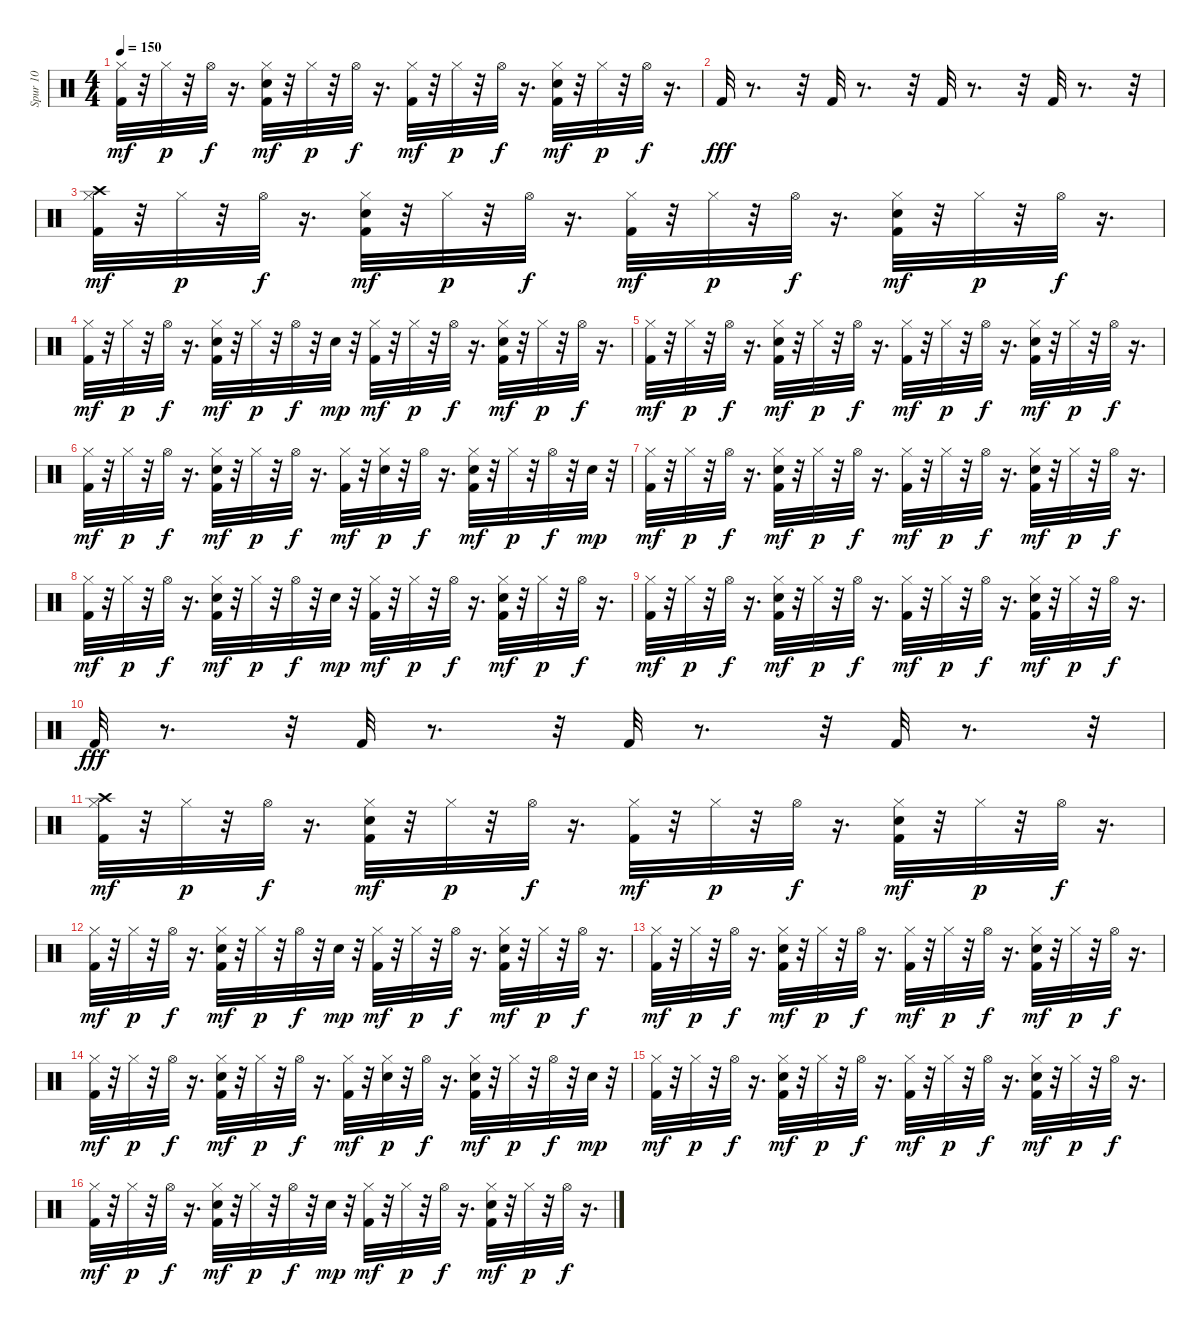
\track ("Spur 10" "Spur 10") {instrument percussion}
\staff {score}
\articulation defaults
\ts (4 4)
\tempo 150
\clef neutral
\ks c
("Kick (hit) 2" "Hi-Hat (closed)").32{dy mf} r.32 "Hi-Hat (closed)".32{dy p} r.32 "Hi-Hat (open)".32{dy f} r.16{d} ("Kick (hit) 2" "Snare (hit) 2" "Hi-Hat (closed)").32{dy mf} r.32 "Hi-Hat (closed)".32{dy p} r.32 "Hi-Hat (open)".32{dy f} r.16{d} ("Kick (hit) 2" "Hi-Hat (closed)").32{dy mf} r.32 "Hi-Hat (closed)".32{dy p} r.32 "Hi-Hat (open)".32{dy f} r.16{d} ("Kick (hit) 2" "Snare (hit) 2" "Hi-Hat (closed)").32{dy mf} r.32 "Hi-Hat (closed)".32{dy p} r.32 "Hi-Hat (open)".32{dy f} r.16{d} |
"Kick (hit) 2".32{dy fff} r.8{d} r.32 "Kick (hit) 2".32 r.8{d} r.32 "Kick (hit) 2".32 r.8{d} r.32 "Kick (hit) 2".32 r.8{d} r.32 |
("Crash high (hit)" "Kick (hit) 2" "Hi-Hat (closed)").32{dy mf} r.32 "Hi-Hat (closed)".32{dy p} r.32 "Hi-Hat (open)".32{dy f} r.16{d} ("Kick (hit) 2" "Snare (hit) 2" "Hi-Hat (closed)").32{dy mf} r.32 "Hi-Hat (closed)".32{dy p} r.32 "Hi-Hat (open)".32{dy f} r.16{d} ("Kick (hit) 2" "Hi-Hat (closed)").32{dy mf} r.32 "Hi-Hat (closed)".32{dy p} r.32 "Hi-Hat (open)".32{dy f} r.16{d} ("Kick (hit) 2" "Snare (hit) 2" "Hi-Hat (closed)").32{dy mf} r.32 "Hi-Hat (closed)".32{dy p} r.32 "Hi-Hat (open)".32{dy f} r.16{d} |
("Kick (hit) 2" "Hi-Hat (closed)").32{dy mf} r.32 "Hi-Hat (closed)".32{dy p} r.32 "Hi-Hat (open)".32{dy f} r.16{d} ("Kick (hit) 2" "Snare (hit) 2" "Hi-Hat (closed)").32{dy mf} r.32 "Hi-Hat (closed)".32{dy p} r.32 "Hi-Hat (open)".32{dy f} r.32 "Snare (hit) 2".32{dy mp} r.32 ("Kick (hit) 2" "Hi-Hat (closed)").32{dy mf} r.32 "Hi-Hat (closed)".32{dy p} r.32 "Hi-Hat (open)".32{dy f} r.16{d} ("Kick (hit) 2" "Snare (hit) 2" "Hi-Hat (closed)").32{dy mf} r.32 "Hi-Hat (closed)".32{dy p} r.32 "Hi-Hat (open)".32{dy f} r.16{d} |
("Kick (hit) 2" "Hi-Hat (closed)").32{dy mf} r.32 "Hi-Hat (closed)".32{dy p} r.32 "Hi-Hat (open)".32{dy f} r.16{d} ("Kick (hit) 2" "Snare (hit) 2" "Hi-Hat (closed)").32{dy mf} r.32 "Hi-Hat (closed)".32{dy p} r.32 "Hi-Hat (open)".32{dy f} r.16{d} ("Kick (hit) 2" "Hi-Hat (closed)").32{dy mf} r.32 "Hi-Hat (closed)".32{dy p} r.32 "Hi-Hat (open)".32{dy f} r.16{d} ("Kick (hit) 2" "Snare (hit) 2" "Hi-Hat (closed)").32{dy mf} r.32 "Hi-Hat (closed)".32{dy p} r.32 "Hi-Hat (open)".32{dy f} r.16{d} |
("Kick (hit) 2" "Hi-Hat (closed)").32{dy mf} r.32 "Hi-Hat (closed)".32{dy p} r.32 "Hi-Hat (open)".32{dy f} r.16{d} ("Kick (hit) 2" "Snare (hit) 2" "Hi-Hat (closed)").32{dy mf} r.32 "Hi-Hat (closed)".32{dy p} r.32 "Hi-Hat (open)".32{dy f} r.16{d} ("Kick (hit) 2" "Hi-Hat (closed)").32{dy mf} r.32 ("Snare (hit) 2" "Hi-Hat (closed)").32{dy p} r.32 "Hi-Hat (open)".32{dy f} r.16{d} ("Kick (hit) 2" "Snare (hit) 2" "Hi-Hat (closed)").32{dy mf} r.32 "Hi-Hat (closed)".32{dy p} r.32 "Hi-Hat (open)".32{dy f} r.32 "Snare (hit) 2".32{dy mp} r.32 |
("Kick (hit) 2" "Hi-Hat (closed)").32{dy mf} r.32 "Hi-Hat (closed)".32{dy p} r.32 "Hi-Hat (open)".32{dy f} r.16{d} ("Kick (hit) 2" "Snare (hit) 2" "Hi-Hat (closed)").32{dy mf} r.32 "Hi-Hat (closed)".32{dy p} r.32 "Hi-Hat (open)".32{dy f} r.16{d} ("Kick (hit) 2" "Hi-Hat (closed)").32{dy mf} r.32 "Hi-Hat (closed)".32{dy p} r.32 "Hi-Hat (open)".32{dy f} r.16{d} ("Kick (hit) 2" "Snare (hit) 2" "Hi-Hat (closed)").32{dy mf} r.32 "Hi-Hat (closed)".32{dy p} r.32 "Hi-Hat (open)".32{dy f} r.16{d} |
("Kick (hit) 2" "Hi-Hat (closed)").32{dy mf} r.32 "Hi-Hat (closed)".32{dy p} r.32 "Hi-Hat (open)".32{dy f} r.16{d} ("Kick (hit) 2" "Snare (hit) 2" "Hi-Hat (closed)").32{dy mf} r.32 "Hi-Hat (closed)".32{dy p} r.32 "Hi-Hat (open)".32{dy f} r.32 "Snare (hit) 2".32{dy mp} r.32 ("Kick (hit) 2" "Hi-Hat (closed)").32{dy mf} r.32 "Hi-Hat (closed)".32{dy p} r.32 "Hi-Hat (open)".32{dy f} r.16{d} ("Kick (hit) 2" "Snare (hit) 2" "Hi-Hat (closed)").32{dy mf} r.32 "Hi-Hat (closed)".32{dy p} r.32 "Hi-Hat (open)".32{dy f} r.16{d} |
("Kick (hit) 2" "Hi-Hat (closed)").32{dy mf} r.32 "Hi-Hat (closed)".32{dy p} r.32 "Hi-Hat (open)".32{dy f} r.16{d} ("Kick (hit) 2" "Snare (hit) 2" "Hi-Hat (closed)").32{dy mf} r.32 "Hi-Hat (closed)".32{dy p} r.32 "Hi-Hat (open)".32{dy f} r.16{d} ("Kick (hit) 2" "Hi-Hat (closed)").32{dy mf} r.32 "Hi-Hat (closed)".32{dy p} r.32 "Hi-Hat (open)".32{dy f} r.16{d} ("Kick (hit) 2" "Snare (hit) 2" "Hi-Hat (closed)").32{dy mf} r.32 "Hi-Hat (closed)".32{dy p} r.32 "Hi-Hat (open)".32{dy f} r.16{d} |
"Kick (hit) 2".32{dy fff} r.8{d} r.32 "Kick (hit) 2".32 r.8{d} r.32 "Kick (hit) 2".32 r.8{d} r.32 "Kick (hit) 2".32 r.8{d} r.32 |
("Crash high (hit)" "Kick (hit) 2" "Hi-Hat (closed)").32{dy mf} r.32 "Hi-Hat (closed)".32{dy p} r.32 "Hi-Hat (open)".32{dy f} r.16{d} ("Kick (hit) 2" "Snare (hit) 2" "Hi-Hat (closed)").32{dy mf} r.32 "Hi-Hat (closed)".32{dy p} r.32 "Hi-Hat (open)".32{dy f} r.16{d} ("Kick (hit) 2" "Hi-Hat (closed)").32{dy mf} r.32 "Hi-Hat (closed)".32{dy p} r.32 "Hi-Hat (open)".32{dy f} r.16{d} ("Kick (hit) 2" "Snare (hit) 2" "Hi-Hat (closed)").32{dy mf} r.32 "Hi-Hat (closed)".32{dy p} r.32 "Hi-Hat (open)".32{dy f} r.16{d} |
("Kick (hit) 2" "Hi-Hat (closed)").32{dy mf} r.32 "Hi-Hat (closed)".32{dy p} r.32 "Hi-Hat (open)".32{dy f} r.16{d} ("Kick (hit) 2" "Snare (hit) 2" "Hi-Hat (closed)").32{dy mf} r.32 "Hi-Hat (closed)".32{dy p} r.32 "Hi-Hat (open)".32{dy f} r.32 "Snare (hit) 2".32{dy mp} r.32 ("Kick (hit) 2" "Hi-Hat (closed)").32{dy mf} r.32 "Hi-Hat (closed)".32{dy p} r.32 "Hi-Hat (open)".32{dy f} r.16{d} ("Kick (hit) 2" "Snare (hit) 2" "Hi-Hat (closed)").32{dy mf} r.32 "Hi-Hat (closed)".32{dy p} r.32 "Hi-Hat (open)".32{dy f} r.16{d} |
("Kick (hit) 2" "Hi-Hat (closed)").32{dy mf} r.32 "Hi-Hat (closed)".32{dy p} r.32 "Hi-Hat (open)".32{dy f} r.16{d} ("Kick (hit) 2" "Snare (hit) 2" "Hi-Hat (closed)").32{dy mf} r.32 "Hi-Hat (closed)".32{dy p} r.32 "Hi-Hat (open)".32{dy f} r.16{d} ("Kick (hit) 2" "Hi-Hat (closed)").32{dy mf} r.32 "Hi-Hat (closed)".32{dy p} r.32 "Hi-Hat (open)".32{dy f} r.16{d} ("Kick (hit) 2" "Snare (hit) 2" "Hi-Hat (closed)").32{dy mf} r.32 "Hi-Hat (closed)".32{dy p} r.32 "Hi-Hat (open)".32{dy f} r.16{d} |
("Kick (hit) 2" "Hi-Hat (closed)").32{dy mf} r.32 "Hi-Hat (closed)".32{dy p} r.32 "Hi-Hat (open)".32{dy f} r.16{d} ("Kick (hit) 2" "Snare (hit) 2" "Hi-Hat (closed)").32{dy mf} r.32 "Hi-Hat (closed)".32{dy p} r.32 "Hi-Hat (open)".32{dy f} r.16{d} ("Kick (hit) 2" "Hi-Hat (closed)").32{dy mf} r.32 ("Snare (hit) 2" "Hi-Hat (closed)").32{dy p} r.32 "Hi-Hat (open)".32{dy f} r.16{d} ("Kick (hit) 2" "Snare (hit) 2" "Hi-Hat (closed)").32{dy mf} r.32 "Hi-Hat (closed)".32{dy p} r.32 "Hi-Hat (open)".32{dy f} r.32 "Snare (hit) 2".32{dy mp} r.32 |
("Kick (hit) 2" "Hi-Hat (closed)").32{dy mf} r.32 "Hi-Hat (closed)".32{dy p} r.32 "Hi-Hat (open)".32{dy f} r.16{d} ("Kick (hit) 2" "Snare (hit) 2" "Hi-Hat (closed)").32{dy mf} r.32 "Hi-Hat (closed)".32{dy p} r.32 "Hi-Hat (open)".32{dy f} r.16{d} ("Kick (hit) 2" "Hi-Hat (closed)").32{dy mf} r.32 "Hi-Hat (closed)".32{dy p} r.32 "Hi-Hat (open)".32{dy f} r.16{d} ("Kick (hit) 2" "Snare (hit) 2" "Hi-Hat (closed)").32{dy mf} r.32 "Hi-Hat (closed)".32{dy p} r.32 "Hi-Hat (open)".32{dy f} r.16{d} |
("Kick (hit) 2" "Hi-Hat (closed)").32{dy mf} r.32 "Hi-Hat (closed)".32{dy p} r.32 "Hi-Hat (open)".32{dy f} r.16{d} ("Kick (hit) 2" "Snare (hit) 2" "Hi-Hat (closed)").32{dy mf} r.32 "Hi-Hat (closed)".32{dy p} r.32 "Hi-Hat (open)".32{dy f} r.32 "Snare (hit) 2".32{dy mp} r.32 ("Kick (hit) 2" "Hi-Hat (closed)").32{dy mf} r.32 "Hi-Hat (closed)".32{dy p} r.32 "Hi-Hat (open)".32{dy f} r.16{d} ("Kick (hit) 2" "Snare (hit) 2" "Hi-Hat (closed)").32{dy mf} r.32 "Hi-Hat (closed)".32{dy p} r.32 "Hi-Hat (open)".32{dy f} r.16{d}
